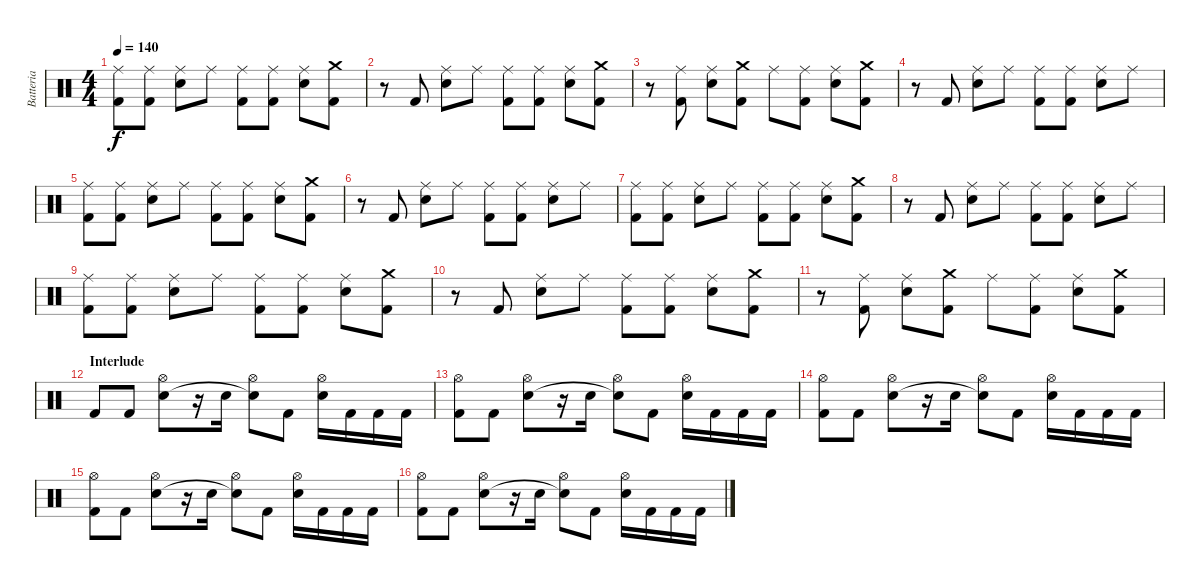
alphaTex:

\track ("Batteria" "Batteria") {instrument percussion}
\staff {score}
\articulation defaults
\ts (4 4)
\tempo 140
\clef neutral
\ks c
("Ride (middle)" "Kick (hit) 2").8{dy f} ("Ride (middle)" "Kick (hit) 2").8 ("Ride (middle)" "Snare (hit) 2").8 "Ride (middle)".8 ("Ride (middle)" "Kick (hit) 2").8 ("Ride (middle)" "Kick (hit) 2").8 ("Ride (middle)" "Snare (hit) 2").8 ("Crash medium (hit)" "Kick (hit) 2").8 |
r.8 "Kick (hit) 2".8 ("Ride (middle)" "Snare (hit) 2").8 "Ride (middle)".8 ("Ride (middle)" "Kick (hit) 2").8 ("Ride (middle)" "Kick (hit) 2").8 ("Ride (middle)" "Snare (hit) 2").8 ("Crash medium (hit)" "Kick (hit) 2").8 |
r.8 ("Ride (middle)" "Kick (hit) 2").8 ("Ride (middle)" "Snare (hit) 2").8 ("Crash medium (hit)" "Kick (hit) 2").8 "Ride (middle)".8 ("Ride (middle)" "Kick (hit) 2").8 ("Ride (middle)" "Snare (hit) 2").8 ("Crash medium (hit)" "Kick (hit) 2").8 |
r.8 "Kick (hit) 2".8 ("Ride (middle)" "Snare (hit) 2").8 "Ride (middle)".8 ("Ride (middle)" "Kick (hit) 2").8 ("Ride (middle)" "Kick (hit) 2").8 ("Ride (middle)" "Snare (hit) 2").8 "Ride (middle)".8 |
("Ride (middle)" "Kick (hit) 2").8 ("Ride (middle)" "Kick (hit) 2").8 ("Ride (middle)" "Snare (hit) 2").8 "Ride (middle)".8 ("Ride (middle)" "Kick (hit) 2").8 ("Ride (middle)" "Kick (hit) 2").8 ("Ride (middle)" "Snare (hit) 2").8 ("Crash medium (hit)" "Kick (hit) 2").8 |
r.8 "Kick (hit) 2".8 ("Ride (middle)" "Snare (hit) 2").8 "Ride (middle)".8 ("Ride (middle)" "Kick (hit) 2").8 ("Ride (middle)" "Kick (hit) 2").8 ("Ride (middle)" "Snare (hit) 2").8 "Ride (middle)".8 |
("Ride (middle)" "Kick (hit) 2").8 ("Ride (middle)" "Kick (hit) 2").8 ("Ride (middle)" "Snare (hit) 2").8 "Ride (middle)".8 ("Ride (middle)" "Kick (hit) 2").8 ("Ride (middle)" "Kick (hit) 2").8 ("Ride (middle)" "Snare (hit) 2").8 ("Crash medium (hit)" "Kick (hit) 2").8 |
r.8 "Kick (hit) 2".8 ("Ride (middle)" "Snare (hit) 2").8 "Ride (middle)".8 ("Ride (middle)" "Kick (hit) 2").8 ("Ride (middle)" "Kick (hit) 2").8 ("Ride (middle)" "Snare (hit) 2").8 "Ride (middle)".8 |
("Ride (middle)" "Kick (hit) 2").8 ("Ride (middle)" "Kick (hit) 2").8 ("Ride (middle)" "Snare (hit) 2").8 "Ride (middle)".8 ("Ride (middle)" "Kick (hit) 2").8 ("Ride (middle)" "Kick (hit) 2").8 ("Ride (middle)" "Snare (hit) 2").8 ("Crash medium (hit)" "Kick (hit) 2").8 |
r.8 "Kick (hit) 2".8 ("Ride (middle)" "Snare (hit) 2").8 "Ride (middle)".8 ("Ride (middle)" "Kick (hit) 2").8 ("Ride (middle)" "Kick (hit) 2").8 ("Ride (middle)" "Snare (hit) 2").8 ("Crash medium (hit)" "Kick (hit) 2").8 |
r.8 ("Ride (middle)" "Kick (hit) 2").8 ("Ride (middle)" "Snare (hit) 2").8 ("Crash medium (hit)" "Kick (hit) 2").8 "Ride (middle)".8 ("Ride (middle)" "Kick (hit) 2").8 ("Ride (middle)" "Snare (hit) 2").8 ("Crash medium (hit)" "Kick (hit) 2").8 |
\section ("" "Interlude")
"Kick (hit) 2".8 "Kick (hit) 2".8 ("Hi-Hat (open)" "Snare (hit) 2").8 r.16 "Snare (hit) 2".16 ("Hi-Hat (open)" "Snare (hit) 2"{t}).8 "Kick (hit) 2".8 ("Hi-Hat (open)" "Snare (hit) 2").16 "Kick (hit) 2".16 "Kick (hit) 2".16 "Kick (hit) 2".16 |
("Hi-Hat (open)" "Kick (hit) 2").8 "Kick (hit) 2".8 ("Hi-Hat (open)" "Snare (hit) 2").8 r.16 "Snare (hit) 2".16 ("Hi-Hat (open)" "Snare (hit) 2"{t}).8 "Kick (hit) 2".8 ("Hi-Hat (open)" "Snare (hit) 2").16 "Kick (hit) 2".16 "Kick (hit) 2".16 "Kick (hit) 2".16 |
("Hi-Hat (open)" "Kick (hit) 2").8 "Kick (hit) 2".8 ("Hi-Hat (open)" "Snare (hit) 2").8 r.16 "Snare (hit) 2".16 ("Hi-Hat (open)" "Snare (hit) 2"{t}).8 "Kick (hit) 2".8 ("Hi-Hat (open)" "Snare (hit) 2").16 "Kick (hit) 2".16 "Kick (hit) 2".16 "Kick (hit) 2".16 |
("Hi-Hat (open)" "Kick (hit) 2").8 "Kick (hit) 2".8 ("Hi-Hat (open)" "Snare (hit) 2").8 r.16 "Snare (hit) 2".16 ("Hi-Hat (open)" "Snare (hit) 2"{t}).8 "Kick (hit) 2".8 ("Hi-Hat (open)" "Snare (hit) 2").16 "Kick (hit) 2".16 "Kick (hit) 2".16 "Kick (hit) 2".16 |
("Hi-Hat (open)" "Kick (hit) 2").8 "Kick (hit) 2".8 ("Hi-Hat (open)" "Snare (hit) 2").8 r.16 "Snare (hit) 2".16 ("Hi-Hat (open)" "Snare (hit) 2"{t}).8 "Kick (hit) 2".8 ("Hi-Hat (open)" "Snare (hit) 2").16 "Kick (hit) 2".16 "Kick (hit) 2".16 "Kick (hit) 2".16
